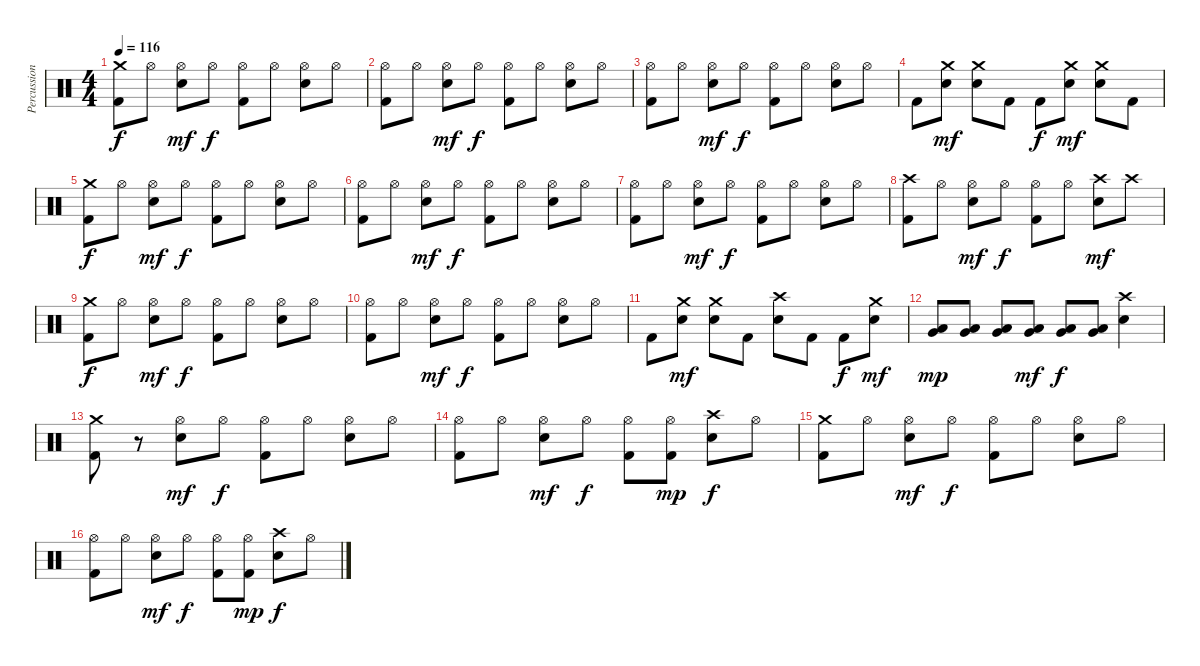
\track ("Percussion" "Percussion") {instrument percussion}
\staff {score}
\articulation defaults
\ts (4 4)
\tempo 116
\clef neutral
\ks c
("Kick (hit) 2" "Crash medium (hit)").8{dy f} "Hi-Hat (open)".8 ("Snare (hit) 2" "Hi-Hat (open)").8{dy mf} "Hi-Hat (open)".8{dy f} ("Kick (hit) 2" "Hi-Hat (open)").8 "Hi-Hat (open)".8 ("Snare (hit) 2" "Hi-Hat (open)").8 "Hi-Hat (open)".8 |
("Kick (hit) 2" "Hi-Hat (open)").8 "Hi-Hat (open)".8 ("Snare (hit) 2" "Hi-Hat (open)").8{dy mf} "Hi-Hat (open)".8{dy f} ("Kick (hit) 2" "Hi-Hat (open)").8 "Hi-Hat (open)".8 ("Snare (hit) 2" "Hi-Hat (open)").8 "Hi-Hat (open)".8 |
("Kick (hit) 2" "Hi-Hat (open)").8 "Hi-Hat (open)".8 ("Snare (hit) 2" "Hi-Hat (open)").8{dy mf} "Hi-Hat (open)".8{dy f} ("Kick (hit) 2" "Hi-Hat (open)").8 "Hi-Hat (open)".8 ("Snare (hit) 2" "Hi-Hat (open)").8 "Hi-Hat (open)".8 |
"Kick (hit) 2".8 ("Snare (hit) 2" "Crash medium (hit)").8{dy mf} ("Snare (hit) 2" "Crash medium (hit)").8 "Kick (hit) 2".8 "Kick (hit) 2".8{dy f} ("Snare (hit) 2" "Crash medium (hit)").8{dy mf} ("Snare (hit) 2" "Crash medium (hit)").8 "Kick (hit) 2".8 |
("Kick (hit) 2" "Crash medium (hit)").8{dy f} "Hi-Hat (open)".8 ("Snare (hit) 2" "Hi-Hat (open)").8{dy mf} "Hi-Hat (open)".8{dy f} ("Kick (hit) 2" "Hi-Hat (open)").8 "Hi-Hat (open)".8 ("Snare (hit) 2" "Hi-Hat (open)").8 "Hi-Hat (open)".8 |
("Kick (hit) 2" "Hi-Hat (open)").8 "Hi-Hat (open)".8 ("Snare (hit) 2" "Hi-Hat (open)").8{dy mf} "Hi-Hat (open)".8{dy f} ("Kick (hit) 2" "Hi-Hat (open)").8 "Hi-Hat (open)".8 ("Snare (hit) 2" "Hi-Hat (open)").8 "Hi-Hat (open)".8 |
("Kick (hit) 2" "Hi-Hat (open)").8 "Hi-Hat (open)".8 ("Snare (hit) 2" "Hi-Hat (open)").8{dy mf} "Hi-Hat (open)".8{dy f} ("Kick (hit) 2" "Hi-Hat (open)").8 "Hi-Hat (open)".8 ("Snare (hit) 2" "Hi-Hat (open)").8 "Hi-Hat (open)".8 |
("Kick (hit) 2" "Crash high (hit)").8 "Hi-Hat (open)".8 ("Snare (hit) 2" "Hi-Hat (open)").8{dy mf} "Hi-Hat (open)".8{dy f} ("Kick (hit) 2" "Hi-Hat (open)").8 "Hi-Hat (open)".8 ("Snare (hit) 2" "Crash high (hit)").8{dy mf} "Crash high (hit)".8 |
("Kick (hit) 2" "Crash medium (hit)").8{dy f} "Hi-Hat (open)".8 ("Snare (hit) 2" "Hi-Hat (open)").8{dy mf} "Hi-Hat (open)".8{dy f} ("Kick (hit) 2" "Hi-Hat (open)").8 "Hi-Hat (open)".8 ("Snare (hit) 2" "Hi-Hat (open)").8 "Hi-Hat (open)".8 |
("Kick (hit) 2" "Hi-Hat (open)").8 "Hi-Hat (open)".8 ("Snare (hit) 2" "Hi-Hat (open)").8{dy mf} "Hi-Hat (open)".8{dy f} ("Kick (hit) 2" "Hi-Hat (open)").8 "Hi-Hat (open)".8 ("Snare (hit) 2" "Hi-Hat (open)").8 "Hi-Hat (open)".8 |
"Kick (hit) 2".8 ("Snare (hit) 2" "Crash medium (hit)").8{dy mf} ("Snare (hit) 2" "Crash medium (hit)").8 "Kick (hit) 2".8 ("Snare (hit) 2" "Crash high (hit)").8 "Kick (hit) 2".8 "Kick (hit) 2".8{dy f} ("Snare (hit) 2" "Crash medium (hit)").8{dy mf} |
("Very Low Tom (hit)" "Low Tom (hit)").8{dy mp} ("Very Low Tom (hit)" "Low Tom (hit)").8 ("Very Low Tom (hit)" "Low Tom (hit)").8 ("Very Low Tom (hit)" "Low Tom (hit)").8{dy mf} ("Very Low Tom (hit)" "Low Tom (hit)").8{dy f} ("Very Low Tom (hit)" "Low Tom (hit)").8 ("Snare (hit) 2" "Crash high (hit)").4 |
("Kick (hit) 2" "Crash medium (hit)").8 r.8 ("Snare (hit) 2" "Hi-Hat (open)").8{dy mf} "Hi-Hat (open)".8{dy f} ("Kick (hit) 2" "Hi-Hat (open)").8 "Hi-Hat (open)".8 ("Snare (hit) 2" "Hi-Hat (open)").8 "Hi-Hat (open)".8 |
("Kick (hit) 2" "Hi-Hat (open)").8 "Hi-Hat (open)".8 ("Snare (hit) 2" "Hi-Hat (open)").8{dy mf} "Hi-Hat (open)".8{dy f} ("Kick (hit) 2" "Hi-Hat (open)").8 ("Kick (hit) 2" "Hi-Hat (open)").8{dy mp} ("Snare (hit) 2" "Crash high (hit)").8{dy f} "Hi-Hat (open)".8 |
("Kick (hit) 2" "Crash medium (hit)").8 "Hi-Hat (open)".8 ("Snare (hit) 2" "Hi-Hat (open)").8{dy mf} "Hi-Hat (open)".8{dy f} ("Kick (hit) 2" "Hi-Hat (open)").8 "Hi-Hat (open)".8 ("Snare (hit) 2" "Hi-Hat (open)").8 "Hi-Hat (open)".8 |
("Kick (hit) 2" "Hi-Hat (open)").8 "Hi-Hat (open)".8 ("Snare (hit) 2" "Hi-Hat (open)").8{dy mf} "Hi-Hat (open)".8{dy f} ("Kick (hit) 2" "Hi-Hat (open)").8 ("Kick (hit) 2" "Hi-Hat (open)").8{dy mp} ("Snare (hit) 2" "Crash high (hit)").8{dy f} "Hi-Hat (open)".8
